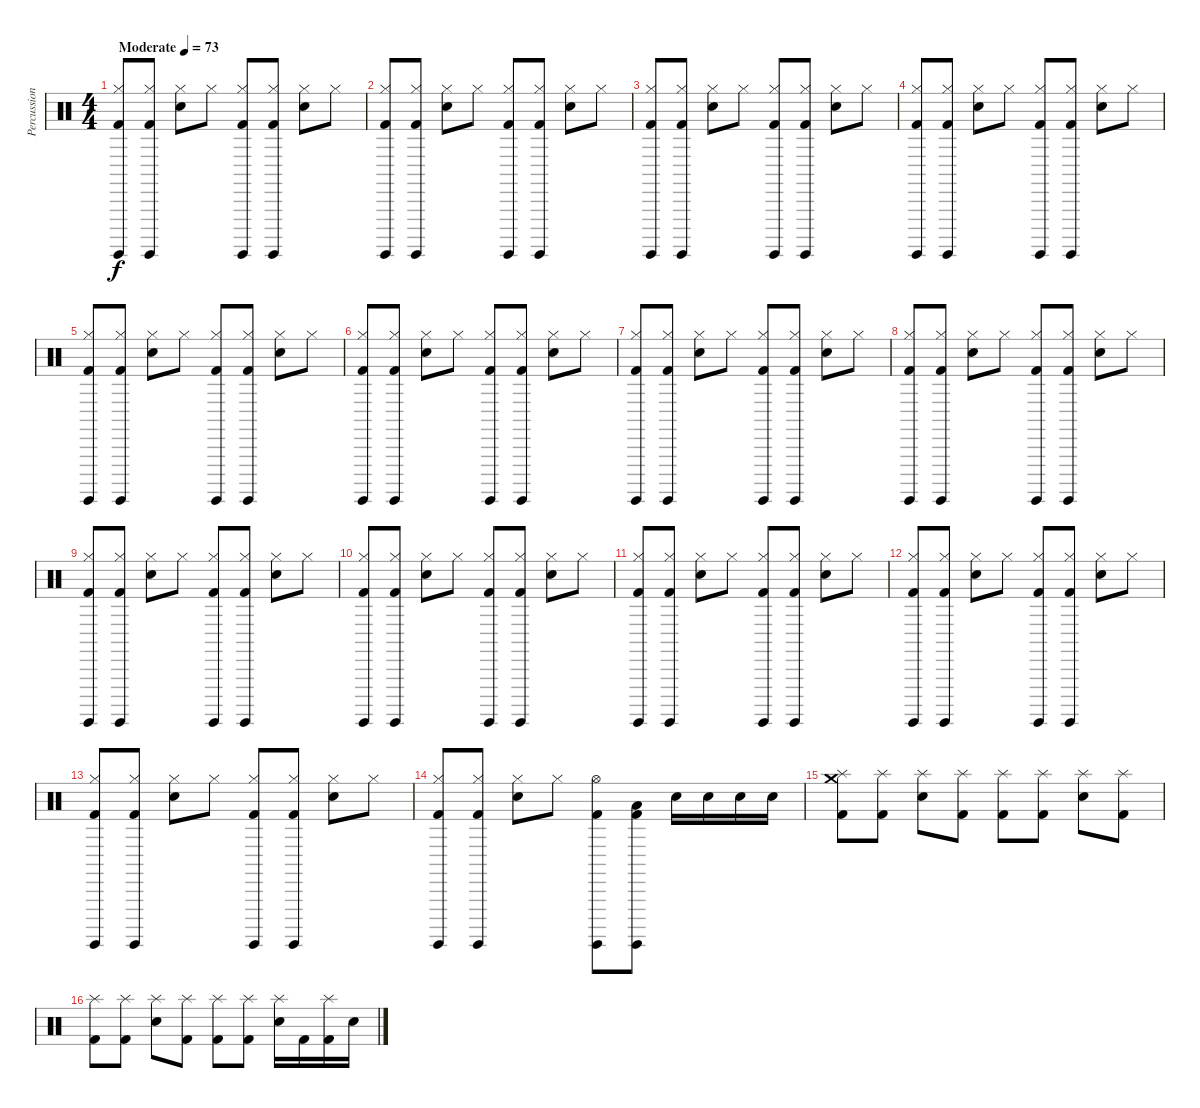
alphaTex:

\track ("Percussions" "Percussion") {instrument percussion}
\staff {score}
\articulation defaults
\ts (4 4)
\tempo (73 "Moderate")
\clef neutral
\ks c
("Hi-Hat (closed)" "Kick (hit) 2" "Surdo (hit)").8{dy f} ("Hi-Hat (closed)" "Kick (hit) 2" "Surdo (hit)").8 ("Hi-Hat (closed)" "Snare (hit) 2").8 "Hi-Hat (closed)".8 ("Hi-Hat (closed)" "Kick (hit) 2" "Surdo (hit)").8 ("Hi-Hat (closed)" "Kick (hit) 2" "Surdo (hit)").8 ("Hi-Hat (closed)" "Snare (hit) 2").8 "Hi-Hat (closed)".8 |
("Hi-Hat (closed)" "Kick (hit) 2" "Surdo (hit)").8 ("Hi-Hat (closed)" "Kick (hit) 2" "Surdo (hit)").8 ("Hi-Hat (closed)" "Snare (hit) 2").8 "Hi-Hat (closed)".8 ("Hi-Hat (closed)" "Kick (hit) 2" "Surdo (hit)").8 ("Hi-Hat (closed)" "Kick (hit) 2" "Surdo (hit)").8 ("Hi-Hat (closed)" "Snare (hit) 2").8 "Hi-Hat (closed)".8 |
("Hi-Hat (closed)" "Kick (hit) 2" "Surdo (hit)").8 ("Hi-Hat (closed)" "Kick (hit) 2" "Surdo (hit)").8 ("Hi-Hat (closed)" "Snare (hit) 2").8 "Hi-Hat (closed)".8 ("Hi-Hat (closed)" "Kick (hit) 2" "Surdo (hit)").8 ("Hi-Hat (closed)" "Kick (hit) 2" "Surdo (hit)").8 ("Hi-Hat (closed)" "Snare (hit) 2").8 "Hi-Hat (closed)".8 |
("Hi-Hat (closed)" "Kick (hit) 2" "Surdo (hit)").8 ("Hi-Hat (closed)" "Kick (hit) 2" "Surdo (hit)").8 ("Hi-Hat (closed)" "Snare (hit) 2").8 "Hi-Hat (closed)".8 ("Hi-Hat (closed)" "Kick (hit) 2" "Surdo (hit)").8 ("Hi-Hat (closed)" "Kick (hit) 2" "Surdo (hit)").8 ("Hi-Hat (closed)" "Snare (hit) 2").8 "Hi-Hat (closed)".8 |
("Hi-Hat (closed)" "Kick (hit) 2" "Surdo (hit)").8 ("Hi-Hat (closed)" "Kick (hit) 2" "Surdo (hit)").8 ("Hi-Hat (closed)" "Snare (hit) 2").8 "Hi-Hat (closed)".8 ("Hi-Hat (closed)" "Kick (hit) 2" "Surdo (hit)").8 ("Hi-Hat (closed)" "Kick (hit) 2" "Surdo (hit)").8 ("Hi-Hat (closed)" "Snare (hit) 2").8 "Hi-Hat (closed)".8 |
("Hi-Hat (closed)" "Kick (hit) 2" "Surdo (hit)").8 ("Hi-Hat (closed)" "Kick (hit) 2" "Surdo (hit)").8 ("Hi-Hat (closed)" "Snare (hit) 2").8 "Hi-Hat (closed)".8 ("Hi-Hat (closed)" "Kick (hit) 2" "Surdo (hit)").8 ("Hi-Hat (closed)" "Kick (hit) 2" "Surdo (hit)").8 ("Hi-Hat (closed)" "Snare (hit) 2").8 "Hi-Hat (closed)".8 |
("Hi-Hat (closed)" "Kick (hit) 2" "Surdo (hit)").8 ("Hi-Hat (closed)" "Kick (hit) 2" "Surdo (hit)").8 ("Hi-Hat (closed)" "Snare (hit) 2").8 "Hi-Hat (closed)".8 ("Hi-Hat (closed)" "Kick (hit) 2" "Surdo (hit)").8 ("Hi-Hat (closed)" "Kick (hit) 2" "Surdo (hit)").8 ("Hi-Hat (closed)" "Snare (hit) 2").8 "Hi-Hat (closed)".8 |
("Hi-Hat (closed)" "Kick (hit) 2" "Surdo (hit)").8 ("Hi-Hat (closed)" "Kick (hit) 2" "Surdo (hit)").8 ("Hi-Hat (closed)" "Snare (hit) 2").8 "Hi-Hat (closed)".8 ("Hi-Hat (closed)" "Kick (hit) 2" "Surdo (hit)").8 ("Hi-Hat (closed)" "Kick (hit) 2" "Surdo (hit)").8 ("Hi-Hat (closed)" "Snare (hit) 2").8 "Hi-Hat (closed)".8 |
("Hi-Hat (closed)" "Kick (hit) 2" "Surdo (hit)").8 ("Hi-Hat (closed)" "Kick (hit) 2" "Surdo (hit)").8 ("Hi-Hat (closed)" "Snare (hit) 2").8 "Hi-Hat (closed)".8 ("Hi-Hat (closed)" "Kick (hit) 2" "Surdo (hit)").8 ("Hi-Hat (closed)" "Kick (hit) 2" "Surdo (hit)").8 ("Hi-Hat (closed)" "Snare (hit) 2").8 "Hi-Hat (closed)".8 |
("Hi-Hat (closed)" "Kick (hit) 2" "Surdo (hit)").8 ("Hi-Hat (closed)" "Kick (hit) 2" "Surdo (hit)").8 ("Hi-Hat (closed)" "Snare (hit) 2").8 "Hi-Hat (closed)".8 ("Hi-Hat (closed)" "Kick (hit) 2" "Surdo (hit)").8 ("Hi-Hat (closed)" "Kick (hit) 2" "Surdo (hit)").8 ("Hi-Hat (closed)" "Snare (hit) 2").8 "Hi-Hat (closed)".8 |
("Hi-Hat (closed)" "Kick (hit) 2" "Surdo (hit)").8 ("Hi-Hat (closed)" "Kick (hit) 2" "Surdo (hit)").8 ("Hi-Hat (closed)" "Snare (hit) 2").8 "Hi-Hat (closed)".8 ("Hi-Hat (closed)" "Kick (hit) 2" "Surdo (hit)").8 ("Hi-Hat (closed)" "Kick (hit) 2" "Surdo (hit)").8 ("Hi-Hat (closed)" "Snare (hit) 2").8 "Hi-Hat (closed)".8 |
("Hi-Hat (closed)" "Kick (hit) 2" "Surdo (hit)").8 ("Hi-Hat (closed)" "Kick (hit) 2" "Surdo (hit)").8 ("Hi-Hat (closed)" "Snare (hit) 2").8 "Hi-Hat (closed)".8 ("Hi-Hat (closed)" "Kick (hit) 2" "Surdo (hit)").8 ("Hi-Hat (closed)" "Kick (hit) 2" "Surdo (hit)").8 ("Hi-Hat (closed)" "Snare (hit) 2").8 "Hi-Hat (closed)".8 |
("Hi-Hat (closed)" "Kick (hit) 2" "Surdo (hit)").8 ("Hi-Hat (closed)" "Kick (hit) 2" "Surdo (hit)").8 ("Hi-Hat (closed)" "Snare (hit) 2").8 "Hi-Hat (closed)".8 ("Hi-Hat (closed)" "Kick (hit) 2" "Surdo (hit)").8 ("Hi-Hat (closed)" "Kick (hit) 2" "Surdo (hit)").8 ("Hi-Hat (closed)" "Snare (hit) 2").8 "Hi-Hat (closed)".8 |
("Hi-Hat (closed)" "Kick (hit) 2" "Surdo (hit)").8 ("Hi-Hat (closed)" "Kick (hit) 2" "Surdo (hit)").8 ("Hi-Hat (closed)" "Snare (hit) 2").8 "Hi-Hat (closed)".8 ("Hi-Hat (open)" "Kick (hit) 2" "Surdo (hit)").8 ("Low Floor Tom (hit)" "Kick (hit) 2" "Surdo (hit)").8 "Electric Snare (hit)".16 "Electric Snare (hit)".16 "Electric Snare (hit)".16 "Electric Snare (hit)".16 |
("Crash medium (hit)" "Splash (hit)" "Kick (hit) 2").8 ("Splash (hit)" "Kick (hit) 2").8 ("Splash (hit)" "Snare (hit) 2").8 ("Splash (hit)" "Kick (hit) 2").8 ("Splash (hit)" "Kick (hit) 2").8 ("Splash (hit)" "Kick (hit) 2").8 ("Splash (hit)" "Snare (hit) 2").8 ("Splash (hit)" "Kick (hit) 2").8 |
("Splash (hit)" "Kick (hit) 2").8 ("Splash (hit)" "Kick (hit) 2").8 ("Splash (hit)" "Snare (hit) 2").8 ("Splash (hit)" "Kick (hit) 2").8 ("Splash (hit)" "Kick (hit) 2").8 ("Splash (hit)" "Kick (hit) 2").8 ("Splash (hit)" "Snare (hit) 2").16 "Kick (hit) 2".16 ("Splash (hit)" "Kick (hit) 2").16 "Electric Snare (hit)".16
